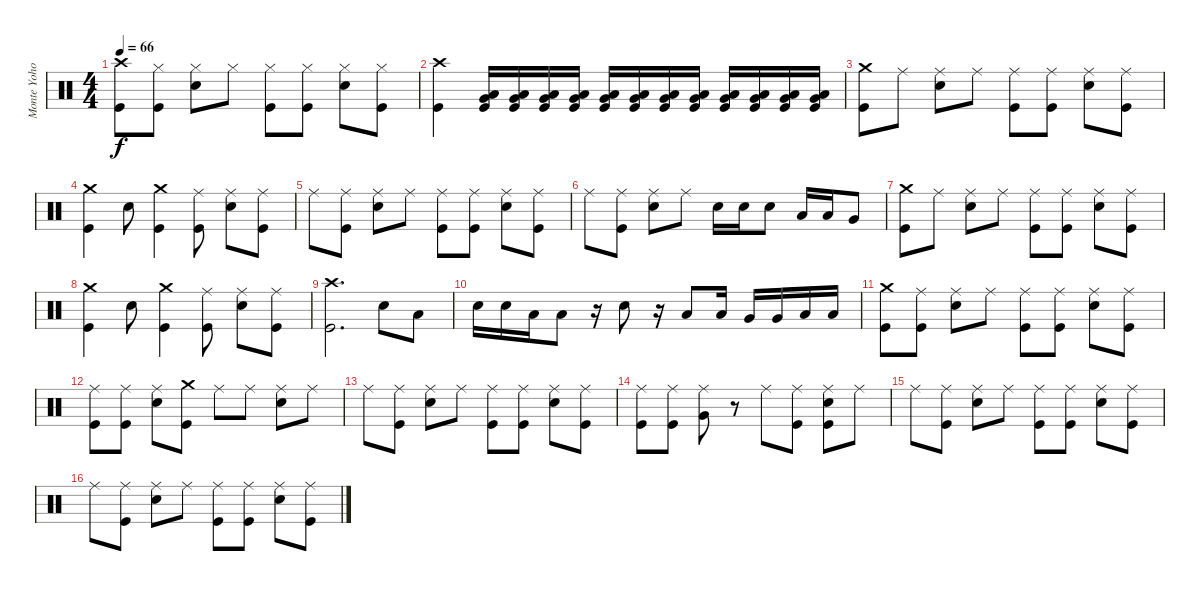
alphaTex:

\track ("Monte Yoho Drums" "Monte Yoho") {instrument percussion}
\staff {score}
\articulation defaults
\ts (4 4)
\tempo 66
\clef neutral
\ks c
("Crash high (hit)" "Kick (hit)").8{dy f} ("Hi-Hat (closed)" "Kick (hit)").8 ("Hi-Hat (closed)" "Snare (hit) 2").8 "Hi-Hat (closed)".8 ("Hi-Hat (closed)" "Kick (hit)").8 ("Hi-Hat (closed)" "Kick (hit)").8 ("Hi-Hat (closed)" "Snare (hit) 2").8 ("Hi-Hat (closed)" "Kick (hit)").8 |
("Crash high (hit)" "Kick (hit)").4 ("Very Low Tom (hit)" "Low Floor Tom (hit)" "Kick (hit)").16 ("Very Low Tom (hit)" "Low Floor Tom (hit)" "Kick (hit)").16 ("Very Low Tom (hit)" "Low Floor Tom (hit)" "Kick (hit)").16 ("Very Low Tom (hit)" "Low Floor Tom (hit)" "Kick (hit)").16 ("Very Low Tom (hit)" "Low Floor Tom (hit)" "Kick (hit)").16 ("Very Low Tom (hit)" "Low Floor Tom (hit)" "Kick (hit)").16 ("Very Low Tom (hit)" "Low Floor Tom (hit)" "Kick (hit)").16 ("Very Low Tom (hit)" "Low Floor Tom (hit)" "Kick (hit)").16 ("Very Low Tom (hit)" "Low Floor Tom (hit)" "Kick (hit)").16 ("Very Low Tom (hit)" "Low Floor Tom (hit)" "Kick (hit)").16 ("Very Low Tom (hit)" "Low Floor Tom (hit)" "Kick (hit)").16 ("Very Low Tom (hit)" "Low Floor Tom (hit)" "Kick (hit)").16 |
("Crash medium (hit)" "Kick (hit)").8 "Ride (middle)".8 ("Ride (middle)" "Snare (hit) 2").8 "Ride (middle)".8 ("Ride (middle)" "Kick (hit)").8 ("Ride (middle)" "Kick (hit)").8 ("Ride (middle)" "Snare (hit) 2").8 ("Ride (middle)" "Kick (hit)").8 |
("Crash medium (hit)" "Kick (hit)").4 "Snare (hit) 2".8 ("Crash medium (hit)" "Kick (hit)").4 ("Ride (middle)" "Kick (hit)").8 ("Ride (middle)" "Snare (hit) 2").8 ("Ride (middle)" "Kick (hit)").8 |
"Ride (middle)".8 ("Ride (middle)" "Kick (hit)").8 ("Ride (middle)" "Snare (hit) 2").8 "Ride (middle)".8 ("Ride (middle)" "Kick (hit)").8 ("Ride (middle)" "Kick (hit)").8 ("Ride (middle)" "Snare (hit) 2").8 ("Ride (middle)" "Kick (hit)").8 |
"Ride (middle)".8 ("Ride (middle)" "Kick (hit)").8 ("Ride (middle)" "Snare (hit) 2").8 "Ride (middle)".8 "Snare (hit) 2".16 "Snare (hit) 2".16 "Snare (hit) 2".8 "Low Tom (hit)".16 "Low Tom (hit)".16 "Very Low Tom (hit)".8 |
("Crash medium (hit)" "Kick (hit)").8 "Ride (middle)".8 ("Ride (middle)" "Snare (hit) 2").8 "Ride (middle)".8 ("Ride (middle)" "Kick (hit)").8 ("Ride (middle)" "Kick (hit)").8 ("Ride (middle)" "Snare (hit) 2").8 ("Ride (middle)" "Kick (hit)").8 |
("Crash medium (hit)" "Kick (hit)").4 "Snare (hit) 2".8 ("Crash medium (hit)" "Kick (hit)").4 ("Ride (middle)" "Kick (hit)").8 ("Ride (middle)" "Snare (hit) 2").8 ("Ride (middle)" "Kick (hit)").8 |
("Crash high (hit)" "Kick (hit)").2{d} "Snare (hit) 2".8 "Low Tom (hit)".8 |
"Snare (hit) 2".16 "Snare (hit) 2".16 "Low Tom (hit)".16 "Low Tom (hit)".8 r.16 "Snare (hit) 2".8 r.16 "Low Tom (hit)".8 "Low Tom (hit)".16 "Very Low Tom (hit)".16 "Very Low Tom (hit)".16 "Low Floor Tom (hit)".16 "Low Floor Tom (hit)".16 |
("Crash medium (hit)" "Kick (hit)").8 ("Ride (middle)" "Kick (hit)").8 ("Ride (middle)" "Snare (hit) 2").8 "Ride (middle)".8 ("Ride (middle)" "Kick (hit)").8 ("Ride (middle)" "Kick (hit)").8 ("Ride (middle)" "Snare (hit) 2").8 ("Ride (middle)" "Kick (hit)").8 |
("Ride (middle)" "Kick (hit)").8 ("Ride (middle)" "Kick (hit)").8 ("Ride (middle)" "Snare (hit) 2").8 ("Crash medium (hit)" "Kick (hit)").8 "Ride (middle)".8 "Ride (middle)".8 ("Ride (middle)" "Snare (hit) 2").8 "Ride (middle)".8 |
"Ride (middle)".8 ("Ride (middle)" "Kick (hit)").8 ("Ride (middle)" "Snare (hit) 2").8 "Ride (middle)".8 ("Ride (middle)" "Kick (hit)").8 ("Ride (middle)" "Kick (hit)").8 ("Ride (middle)" "Snare (hit) 2").8 ("Ride (middle)" "Kick (hit)").8 |
("Ride (middle)" "Kick (hit)").8 ("Ride (middle)" "Kick (hit)").8 ("Ride (middle)" "Very Low Tom (hit)").8 r.8 "Ride (middle)".8 ("Ride (middle)" "Kick (hit)").8 ("Ride (middle)" "Snare (hit) 2" "Kick (hit)").8 "Ride (middle)".8 |
"Ride (middle)".8 ("Ride (middle)" "Kick (hit)").8 ("Ride (middle)" "Snare (hit) 2").8 "Ride (middle)".8 ("Ride (middle)" "Kick (hit)").8 ("Ride (middle)" "Kick (hit)").8 ("Ride (middle)" "Snare (hit) 2").8 ("Ride (middle)" "Kick (hit)").8 |
"Ride (middle)".8 ("Ride (middle)" "Kick (hit)").8 ("Ride (middle)" "Snare (hit) 2").8 "Ride (middle)".8 ("Ride (middle)" "Kick (hit)").8 ("Ride (middle)" "Kick (hit)").8 ("Ride (middle)" "Snare (hit) 2").8 ("Ride (middle)" "Kick (hit)").8
